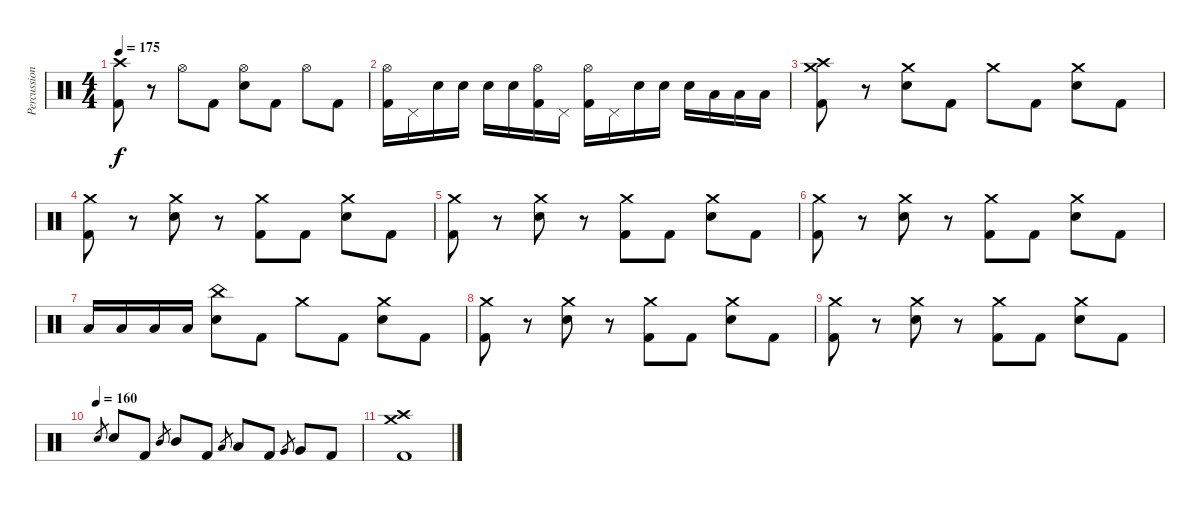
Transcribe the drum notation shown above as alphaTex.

\track ("Percussion" "Percussion") {instrument percussion}
\staff {score}
\articulation defaults
\ts (4 4)
\tempo 175
\clef neutral
\ks c
("Kick (hit) 2" "Crash high (hit)").8{dy f} r.8 "Hi-Hat (open)".8 "Kick (hit) 2".8 ("Electric Snare (hit)" "Hi-Hat (open)").8 "Kick (hit) 2".8 "Hi-Hat (open)".8 "Kick (hit) 2".8 |
("Kick (hit) 2" "Hi-Hat (open)").16 "Pedal Hi-Hat (hit)".16 "Electric Snare (hit)".16 "Electric Snare (hit)".16 "Electric Snare (hit)".16 "Electric Snare (hit)".16 ("Kick (hit) 2" "Hi-Hat (open)").16 "Pedal Hi-Hat (hit)".16 ("Kick (hit) 2" "Hi-Hat (open)").16 "Pedal Hi-Hat (hit)".16 "Electric Snare (hit)".16 "Electric Snare (hit)".16 "Electric Snare (hit)".16 "Low Tom (hit)".16 "Low Tom (hit)".16 "Low Tom (hit)".16 |
("Kick (hit) 2" "Crash high (hit)" "Crash medium (hit)").8 r.8 ("Electric Snare (hit)" "Crash medium (hit)").8 "Kick (hit) 2".8 "Crash medium (hit)".8 "Kick (hit) 2".8 ("Electric Snare (hit)" "Crash medium (hit)").8 "Kick (hit) 2".8 |
("Kick (hit) 2" "Crash medium (hit)").8 r.8 ("Electric Snare (hit)" "Crash medium (hit)").8 r.8 ("Kick (hit) 2" "Crash medium (hit)").8 "Kick (hit) 2".8 ("Electric Snare (hit)" "Crash medium (hit)").8 "Kick (hit) 2".8 |
("Kick (hit) 2" "Crash medium (hit)").8 r.8 ("Electric Snare (hit)" "Crash medium (hit)").8 r.8 ("Kick (hit) 2" "Crash medium (hit)").8 "Kick (hit) 2".8 ("Electric Snare (hit)" "Crash medium (hit)").8 "Kick (hit) 2".8 |
("Kick (hit) 2" "Crash medium (hit)").8 r.8 ("Electric Snare (hit)" "Crash medium (hit)").8 r.8 ("Kick (hit) 2" "Crash medium (hit)").8 "Kick (hit) 2".8 ("Electric Snare (hit)" "Crash medium (hit)").8 "Kick (hit) 2".8 |
"Low Tom (hit)".16 "Low Tom (hit)".16 "Low Tom (hit)".16 "Low Tom (hit)".16 ("Electric Snare (hit)" "China (hit)").8 "Kick (hit) 2".8 "Crash medium (hit)".8 "Kick (hit) 2".8 ("Electric Snare (hit)" "Crash medium (hit)").8 "Kick (hit) 2".8 |
("Kick (hit) 2" "Crash medium (hit)").8 r.8 ("Electric Snare (hit)" "Crash medium (hit)").8 r.8 ("Kick (hit) 2" "Crash medium (hit)").8 "Kick (hit) 2".8 ("Electric Snare (hit)" "Crash medium (hit)").8 "Kick (hit) 2".8 |
("Kick (hit) 2" "Crash medium (hit)").8 r.8 ("Electric Snare (hit)" "Crash medium (hit)").8 r.8 ("Kick (hit) 2" "Crash medium (hit)").8 "Kick (hit) 2".8 ("Electric Snare (hit)" "Crash medium (hit)").8 "Kick (hit) 2".8 |
\tempo (160)
"Electric Snare (hit)".8{gr} "Electric Snare (hit)".8 "Kick (hit) 2".8 "Mid Tom (hit)".8{gr} "Mid Tom (hit)".8 "Kick (hit) 2".8 "Low Tom (hit)".8{gr} "Low Tom (hit)".8 "Kick (hit) 2".8 "Very Low Tom (hit)".8{gr} "Very Low Tom (hit)".8 "Kick (hit) 2".8 |
("Kick (hit) 2" "Crash high (hit)" "Crash medium (hit)").1
